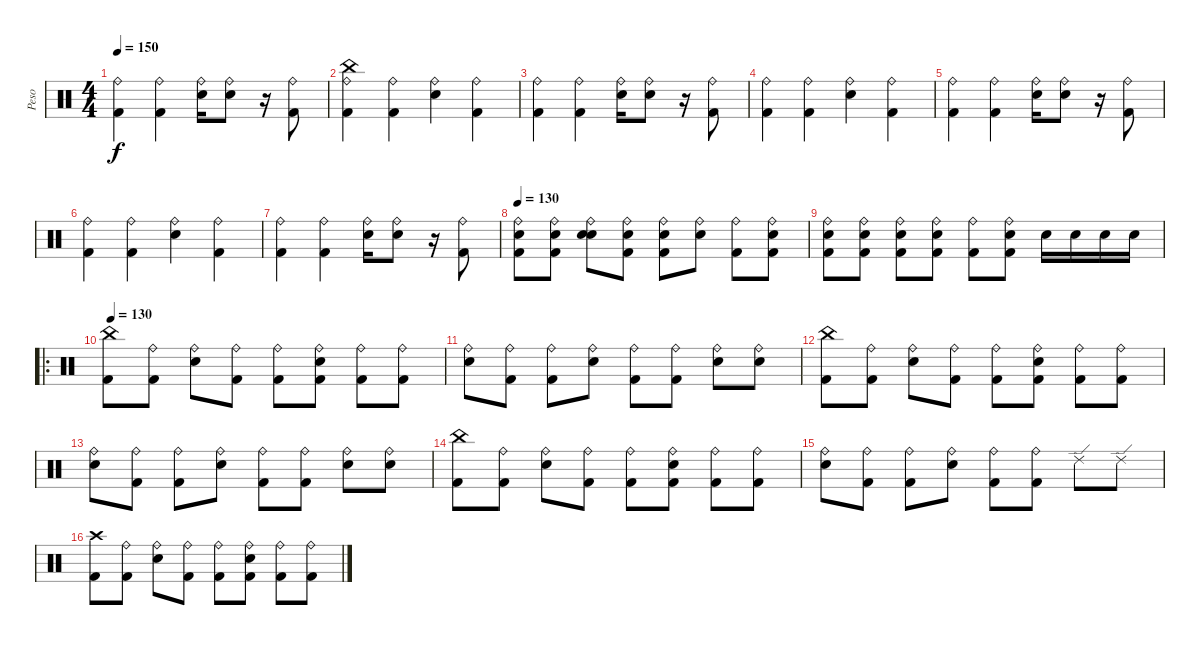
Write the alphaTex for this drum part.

\track ("Peso" "Peso") {instrument percussion}
\staff {score}
\articulation defaults
\ts (4 4)
\tempo 150
\clef neutral
\ks c
("Ride (bell)" "Kick (hit) 2").4{dy f} ("Ride (bell)" "Kick (hit) 2").4 ("Ride (bell)" "Snare (hit) 2").16 ("Ride (bell)" "Snare (hit) 2").8 r.16 ("Ride (bell)" "Kick (hit) 2").8 |
("China (hit)" "Ride (bell)" "Kick (hit) 2").4 ("Ride (bell)" "Kick (hit) 2").4 ("Ride (bell)" "Snare (hit) 2").4 ("Ride (bell)" "Kick (hit) 2").4 |
("Ride (bell)" "Kick (hit) 2").4 ("Ride (bell)" "Kick (hit) 2").4 ("Ride (bell)" "Snare (hit) 2").16 ("Ride (bell)" "Snare (hit) 2").8 r.16 ("Ride (bell)" "Kick (hit) 2").8 |
("Ride (bell)" "Kick (hit) 2").4 ("Ride (bell)" "Kick (hit) 2").4 ("Ride (bell)" "Snare (hit) 2").4 ("Ride (bell)" "Kick (hit) 2").4 |
("Ride (bell)" "Kick (hit) 2").4 ("Ride (bell)" "Kick (hit) 2").4 ("Ride (bell)" "Snare (hit) 2").16 ("Ride (bell)" "Snare (hit) 2").8 r.16 ("Ride (bell)" "Kick (hit) 2").8 |
("Ride (bell)" "Kick (hit) 2").4 ("Ride (bell)" "Kick (hit) 2").4 ("Ride (bell)" "Snare (hit) 2").4 ("Ride (bell)" "Kick (hit) 2").4 |
("Ride (bell)" "Kick (hit) 2").4 ("Ride (bell)" "Kick (hit) 2").4 ("Ride (bell)" "Snare (hit) 2").16 ("Ride (bell)" "Snare (hit) 2").8 r.16 ("Ride (bell)" "Kick (hit) 2").8 |
\tempo 130
("Ride (bell)" "Snare (hit) 2" "Kick (hit) 2").8 ("Ride (bell)" "Snare (hit) 2" "Kick (hit) 2").8 ("Ride (bell)" "Snare (hit) 2" "Snare (hit) 2").8 ("Ride (bell)" "Snare (hit) 2" "Kick (hit) 2").8 ("Ride (bell)" "Snare (hit) 2" "Kick (hit) 2").8 ("Ride (bell)" "Snare (hit) 2").8 ("Ride (bell)" "Kick (hit) 2").8 ("Ride (bell)" "Snare (hit) 2" "Kick (hit) 2").8 |
("Ride (bell)" "Snare (hit) 2" "Kick (hit) 2").8 ("Ride (bell)" "Snare (hit) 2" "Kick (hit) 2").8 ("Ride (bell)" "Snare (hit) 2" "Kick (hit) 2").8 ("Ride (bell)" "Snare (hit) 2" "Kick (hit) 2").8 ("Ride (bell)" "Kick (hit) 2").8 ("Ride (bell)" "Snare (hit) 2" "Kick (hit) 2").8 "Snare (hit) 2".16 "Snare (hit) 2".16 "Snare (hit) 2".16 "Snare (hit) 2".16 |
\ro
\tempo 130
("China (hit)" "Kick (hit) 2").8 ("Ride (bell)" "Kick (hit) 2").8 ("Ride (bell)" "Snare (hit) 2").8 ("Ride (bell)" "Kick (hit) 2").8 ("Ride (bell)" "Kick (hit) 2").8 ("Ride (bell)" "Snare (hit) 2" "Kick (hit) 2").8 ("Ride (bell)" "Kick (hit) 2").8 ("Ride (bell)" "Kick (hit) 2").8 |
("Ride (bell)" "Snare (hit) 2").8 ("Ride (bell)" "Kick (hit) 2").8 ("Ride (bell)" "Kick (hit) 2").8 ("Ride (bell)" "Snare (hit) 2").8 ("Ride (bell)" "Kick (hit) 2").8 ("Ride (bell)" "Kick (hit) 2").8 ("Ride (bell)" "Snare (hit) 2").8 ("Ride (bell)" "Snare (hit) 2").8 |
("China (hit)" "Kick (hit) 2").8 ("Ride (bell)" "Kick (hit) 2").8 ("Ride (bell)" "Snare (hit) 2").8 ("Ride (bell)" "Kick (hit) 2").8 ("Ride (bell)" "Kick (hit) 2").8 ("Ride (bell)" "Snare (hit) 2" "Kick (hit) 2").8 ("Ride (bell)" "Kick (hit) 2").8 ("Ride (bell)" "Kick (hit) 2").8 |
("Ride (bell)" "Snare (hit) 2").8 ("Ride (bell)" "Kick (hit) 2").8 ("Ride (bell)" "Kick (hit) 2").8 ("Ride (bell)" "Snare (hit) 2").8 ("Ride (bell)" "Kick (hit) 2").8 ("Ride (bell)" "Kick (hit) 2").8 ("Ride (bell)" "Snare (hit) 2").8 ("Ride (bell)" "Snare (hit) 2").8 |
("China (hit)" "Kick (hit) 2").8 ("Ride (bell)" "Kick (hit) 2").8 ("Ride (bell)" "Snare (hit) 2").8 ("Ride (bell)" "Kick (hit) 2").8 ("Ride (bell)" "Kick (hit) 2").8 ("Ride (bell)" "Snare (hit) 2" "Kick (hit) 2").8 ("Ride (bell)" "Kick (hit) 2").8 ("Ride (bell)" "Kick (hit) 2").8 |
("Ride (bell)" "Snare (hit) 2").8 ("Ride (bell)" "Kick (hit) 2").8 ("Ride (bell)" "Kick (hit) 2").8 ("Ride (bell)" "Snare (hit) 2").8 ("Ride (bell)" "Kick (hit) 2").8 ("Ride (bell)" "Kick (hit) 2").8 "Ride (edge) 2".8 "Ride (edge) 2".8 |
("Crash high (hit)" "Kick (hit) 2").8 ("Ride (bell)" "Kick (hit) 2").8 ("Ride (bell)" "Snare (hit) 2").8 ("Ride (bell)" "Kick (hit) 2").8 ("Ride (bell)" "Kick (hit) 2").8 ("Ride (bell)" "Snare (hit) 2" "Kick (hit) 2").8 ("Ride (bell)" "Kick (hit) 2").8 ("Ride (bell)" "Kick (hit) 2").8
